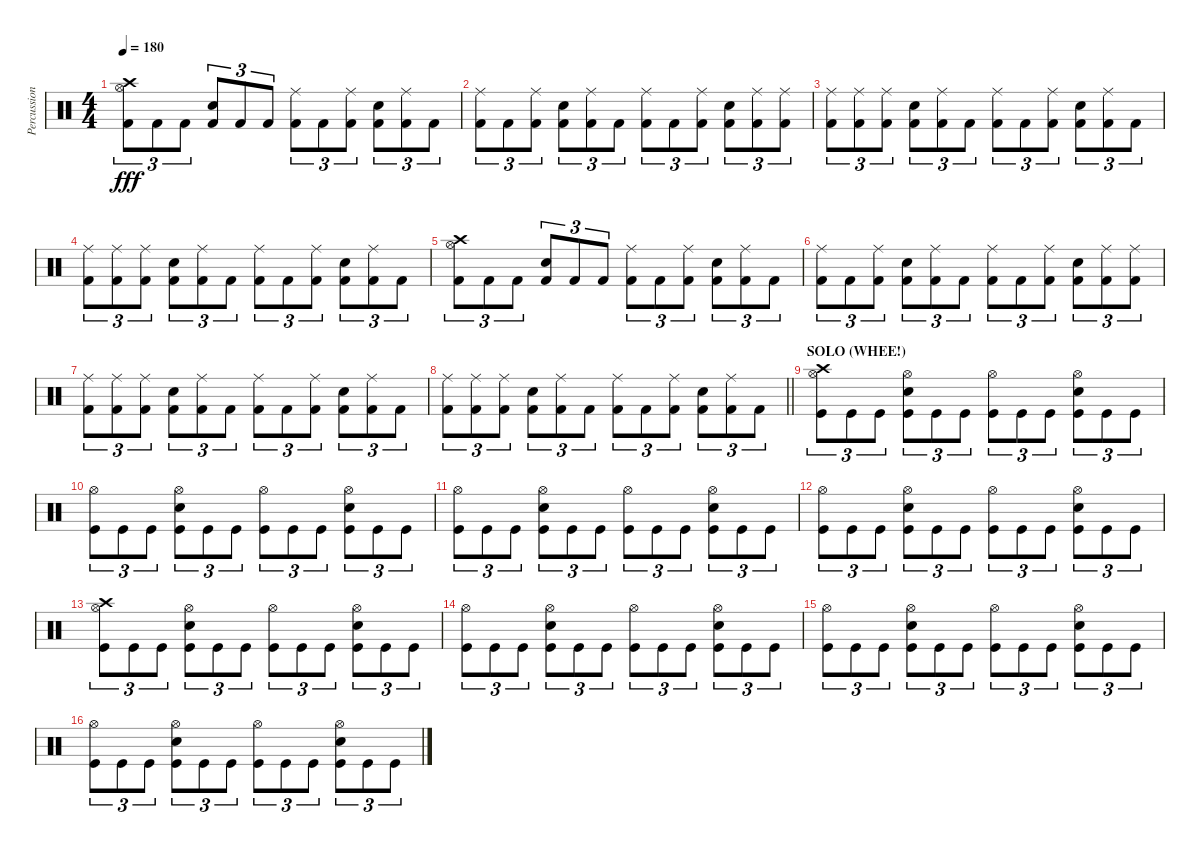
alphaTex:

\track ("Percussion" "Percussion") {instrument percussion}
\staff {score}
\articulation defaults
\ts (4 4)
\tempo 180
\clef neutral
\ks c
("Crash high (hit)" "Hi-Hat (open)" "Kick (hit) 2").8{tu (3 2) dy fff} "Kick (hit) 2".8{tu (3 2)} "Kick (hit) 2".8{tu (3 2)} ("Electric Snare (hit)" "Kick (hit) 2").8{tu (3 2)} "Kick (hit) 2".8{tu (3 2)} "Kick (hit) 2".8{tu (3 2)} ("Ride (middle)" "Kick (hit) 2").8{tu (3 2)} "Kick (hit) 2".8{tu (3 2)} ("Ride (middle)" "Kick (hit) 2").8{tu (3 2)} ("Electric Snare (hit)" "Kick (hit) 2").8{tu (3 2)} ("Ride (middle)" "Kick (hit) 2").8{tu (3 2)} "Kick (hit) 2".8{tu (3 2)} |
("Ride (middle)" "Kick (hit) 2").8{tu (3 2)} "Kick (hit) 2".8{tu (3 2)} ("Ride (middle)" "Kick (hit) 2").8{tu (3 2)} ("Electric Snare (hit)" "Kick (hit) 2").8{tu (3 2)} ("Ride (middle)" "Kick (hit) 2").8{tu (3 2)} "Kick (hit) 2".8{tu (3 2)} ("Ride (middle)" "Kick (hit) 2").8{tu (3 2)} "Kick (hit) 2".8{tu (3 2)} ("Ride (middle)" "Kick (hit) 2").8{tu (3 2)} ("Electric Snare (hit)" "Kick (hit) 2").8{tu (3 2)} ("Ride (middle)" "Kick (hit) 2").8{tu (3 2)} ("Ride (middle)" "Kick (hit) 2").8{tu (3 2)} |
("Ride (middle)" "Kick (hit) 2").8{tu (3 2)} ("Ride (middle)" "Kick (hit) 2").8{tu (3 2)} ("Ride (middle)" "Kick (hit) 2").8{tu (3 2)} ("Electric Snare (hit)" "Kick (hit) 2").8{tu (3 2)} ("Ride (middle)" "Kick (hit) 2").8{tu (3 2)} "Kick (hit) 2".8{tu (3 2)} ("Ride (middle)" "Kick (hit) 2").8{tu (3 2)} "Kick (hit) 2".8{tu (3 2)} ("Ride (middle)" "Kick (hit) 2").8{tu (3 2)} ("Electric Snare (hit)" "Kick (hit) 2").8{tu (3 2)} ("Ride (middle)" "Kick (hit) 2").8{tu (3 2)} "Kick (hit) 2".8{tu (3 2)} |
("Ride (middle)" "Kick (hit) 2").8{tu (3 2)} ("Ride (middle)" "Kick (hit) 2").8{tu (3 2)} ("Ride (middle)" "Kick (hit) 2").8{tu (3 2)} ("Electric Snare (hit)" "Kick (hit) 2").8{tu (3 2)} ("Ride (middle)" "Kick (hit) 2").8{tu (3 2)} "Kick (hit) 2".8{tu (3 2)} ("Ride (middle)" "Kick (hit) 2").8{tu (3 2)} "Kick (hit) 2".8{tu (3 2)} ("Ride (middle)" "Kick (hit) 2").8{tu (3 2)} ("Electric Snare (hit)" "Kick (hit) 2").8{tu (3 2)} ("Ride (middle)" "Kick (hit) 2").8{tu (3 2)} "Kick (hit) 2".8{tu (3 2)} |
("Crash high (hit)" "Hi-Hat (open)" "Kick (hit) 2").8{tu (3 2)} "Kick (hit) 2".8{tu (3 2)} "Kick (hit) 2".8{tu (3 2)} ("Electric Snare (hit)" "Kick (hit) 2").8{tu (3 2)} "Kick (hit) 2".8{tu (3 2)} "Kick (hit) 2".8{tu (3 2)} ("Ride (middle)" "Kick (hit) 2").8{tu (3 2)} "Kick (hit) 2".8{tu (3 2)} ("Ride (middle)" "Kick (hit) 2").8{tu (3 2)} ("Electric Snare (hit)" "Kick (hit) 2").8{tu (3 2)} ("Ride (middle)" "Kick (hit) 2").8{tu (3 2)} "Kick (hit) 2".8{tu (3 2)} |
("Ride (middle)" "Kick (hit) 2").8{tu (3 2)} "Kick (hit) 2".8{tu (3 2)} ("Ride (middle)" "Kick (hit) 2").8{tu (3 2)} ("Electric Snare (hit)" "Kick (hit) 2").8{tu (3 2)} ("Ride (middle)" "Kick (hit) 2").8{tu (3 2)} "Kick (hit) 2".8{tu (3 2)} ("Ride (middle)" "Kick (hit) 2").8{tu (3 2)} "Kick (hit) 2".8{tu (3 2)} ("Ride (middle)" "Kick (hit) 2").8{tu (3 2)} ("Electric Snare (hit)" "Kick (hit) 2").8{tu (3 2)} ("Ride (middle)" "Kick (hit) 2").8{tu (3 2)} ("Ride (middle)" "Kick (hit) 2").8{tu (3 2)} |
("Ride (middle)" "Kick (hit) 2").8{tu (3 2)} ("Ride (middle)" "Kick (hit) 2").8{tu (3 2)} ("Ride (middle)" "Kick (hit) 2").8{tu (3 2)} ("Electric Snare (hit)" "Kick (hit) 2").8{tu (3 2)} ("Ride (middle)" "Kick (hit) 2").8{tu (3 2)} "Kick (hit) 2".8{tu (3 2)} ("Ride (middle)" "Kick (hit) 2").8{tu (3 2)} "Kick (hit) 2".8{tu (3 2)} ("Ride (middle)" "Kick (hit) 2").8{tu (3 2)} ("Electric Snare (hit)" "Kick (hit) 2").8{tu (3 2)} ("Ride (middle)" "Kick (hit) 2").8{tu (3 2)} "Kick (hit) 2".8{tu (3 2)} |
\barLineRight lightlight
("Ride (middle)" "Kick (hit) 2").8{tu (3 2)} ("Ride (middle)" "Kick (hit) 2").8{tu (3 2)} ("Ride (middle)" "Kick (hit) 2").8{tu (3 2)} ("Electric Snare (hit)" "Kick (hit) 2").8{tu (3 2)} ("Ride (middle)" "Kick (hit) 2").8{tu (3 2)} "Kick (hit) 2".8{tu (3 2)} ("Ride (middle)" "Kick (hit) 2").8{tu (3 2)} "Kick (hit) 2".8{tu (3 2)} ("Ride (middle)" "Kick (hit) 2").8{tu (3 2)} ("Electric Snare (hit)" "Kick (hit) 2").8{tu (3 2)} ("Ride (middle)" "Kick (hit) 2").8{tu (3 2)} "Kick (hit) 2".8{tu (3 2)} |
\section ("" "SOLO (WHEE!)")
("Crash high (hit)" "Hi-Hat (open)" "Kick (hit)").8{tu (3 2)} "Kick (hit)".8{tu (3 2)} "Kick (hit)".8{tu (3 2)} ("Hi-Hat (open)" "Electric Snare (hit)" "Kick (hit)").8{tu (3 2)} "Kick (hit)".8{tu (3 2)} "Kick (hit)".8{tu (3 2)} ("Hi-Hat (open)" "Kick (hit)").8{tu (3 2)} "Kick (hit)".8{tu (3 2)} "Kick (hit)".8{tu (3 2)} ("Hi-Hat (open)" "Electric Snare (hit)" "Kick (hit)").8{tu (3 2)} "Kick (hit)".8{tu (3 2)} "Kick (hit)".8{tu (3 2)} |
("Hi-Hat (open)" "Kick (hit)").8{tu (3 2)} "Kick (hit)".8{tu (3 2)} "Kick (hit)".8{tu (3 2)} ("Hi-Hat (open)" "Electric Snare (hit)" "Kick (hit)").8{tu (3 2)} "Kick (hit)".8{tu (3 2)} "Kick (hit)".8{tu (3 2)} ("Hi-Hat (open)" "Kick (hit)").8{tu (3 2)} "Kick (hit)".8{tu (3 2)} "Kick (hit)".8{tu (3 2)} ("Hi-Hat (open)" "Electric Snare (hit)" "Kick (hit)").8{tu (3 2)} "Kick (hit)".8{tu (3 2)} "Kick (hit)".8{tu (3 2)} |
("Hi-Hat (open)" "Kick (hit)").8{tu (3 2)} "Kick (hit)".8{tu (3 2)} "Kick (hit)".8{tu (3 2)} ("Hi-Hat (open)" "Electric Snare (hit)" "Kick (hit)").8{tu (3 2)} "Kick (hit)".8{tu (3 2)} "Kick (hit)".8{tu (3 2)} ("Hi-Hat (open)" "Kick (hit)").8{tu (3 2)} "Kick (hit)".8{tu (3 2)} "Kick (hit)".8{tu (3 2)} ("Hi-Hat (open)" "Electric Snare (hit)" "Kick (hit)").8{tu (3 2)} "Kick (hit)".8{tu (3 2)} "Kick (hit)".8{tu (3 2)} |
("Hi-Hat (open)" "Kick (hit)").8{tu (3 2)} "Kick (hit)".8{tu (3 2)} "Kick (hit)".8{tu (3 2)} ("Hi-Hat (open)" "Electric Snare (hit)" "Kick (hit)").8{tu (3 2)} "Kick (hit)".8{tu (3 2)} "Kick (hit)".8{tu (3 2)} ("Hi-Hat (open)" "Kick (hit)").8{tu (3 2)} "Kick (hit)".8{tu (3 2)} "Kick (hit)".8{tu (3 2)} ("Hi-Hat (open)" "Electric Snare (hit)" "Kick (hit)").8{tu (3 2)} "Kick (hit)".8{tu (3 2)} "Kick (hit)".8{tu (3 2)} |
("Crash high (hit)" "Hi-Hat (open)" "Kick (hit)").8{tu (3 2)} "Kick (hit)".8{tu (3 2)} "Kick (hit)".8{tu (3 2)} ("Hi-Hat (open)" "Electric Snare (hit)" "Kick (hit)").8{tu (3 2)} "Kick (hit)".8{tu (3 2)} "Kick (hit)".8{tu (3 2)} ("Hi-Hat (open)" "Kick (hit)").8{tu (3 2)} "Kick (hit)".8{tu (3 2)} "Kick (hit)".8{tu (3 2)} ("Hi-Hat (open)" "Electric Snare (hit)" "Kick (hit)").8{tu (3 2)} "Kick (hit)".8{tu (3 2)} "Kick (hit)".8{tu (3 2)} |
("Hi-Hat (open)" "Kick (hit)").8{tu (3 2)} "Kick (hit)".8{tu (3 2)} "Kick (hit)".8{tu (3 2)} ("Hi-Hat (open)" "Electric Snare (hit)" "Kick (hit)").8{tu (3 2)} "Kick (hit)".8{tu (3 2)} "Kick (hit)".8{tu (3 2)} ("Hi-Hat (open)" "Kick (hit)").8{tu (3 2)} "Kick (hit)".8{tu (3 2)} "Kick (hit)".8{tu (3 2)} ("Hi-Hat (open)" "Electric Snare (hit)" "Kick (hit)").8{tu (3 2)} "Kick (hit)".8{tu (3 2)} "Kick (hit)".8{tu (3 2)} |
("Hi-Hat (open)" "Kick (hit)").8{tu (3 2)} "Kick (hit)".8{tu (3 2)} "Kick (hit)".8{tu (3 2)} ("Hi-Hat (open)" "Electric Snare (hit)" "Kick (hit)").8{tu (3 2)} "Kick (hit)".8{tu (3 2)} "Kick (hit)".8{tu (3 2)} ("Hi-Hat (open)" "Kick (hit)").8{tu (3 2)} "Kick (hit)".8{tu (3 2)} "Kick (hit)".8{tu (3 2)} ("Hi-Hat (open)" "Electric Snare (hit)" "Kick (hit)").8{tu (3 2)} "Kick (hit)".8{tu (3 2)} "Kick (hit)".8{tu (3 2)} |
("Hi-Hat (open)" "Kick (hit)").8{tu (3 2)} "Kick (hit)".8{tu (3 2)} "Kick (hit)".8{tu (3 2)} ("Hi-Hat (open)" "Electric Snare (hit)" "Kick (hit)").8{tu (3 2)} "Kick (hit)".8{tu (3 2)} "Kick (hit)".8{tu (3 2)} ("Hi-Hat (open)" "Kick (hit)").8{tu (3 2)} "Kick (hit)".8{tu (3 2)} "Kick (hit)".8{tu (3 2)} ("Hi-Hat (open)" "Electric Snare (hit)" "Kick (hit)").8{tu (3 2)} "Kick (hit)".8{tu (3 2)} "Kick (hit)".8{tu (3 2)}
